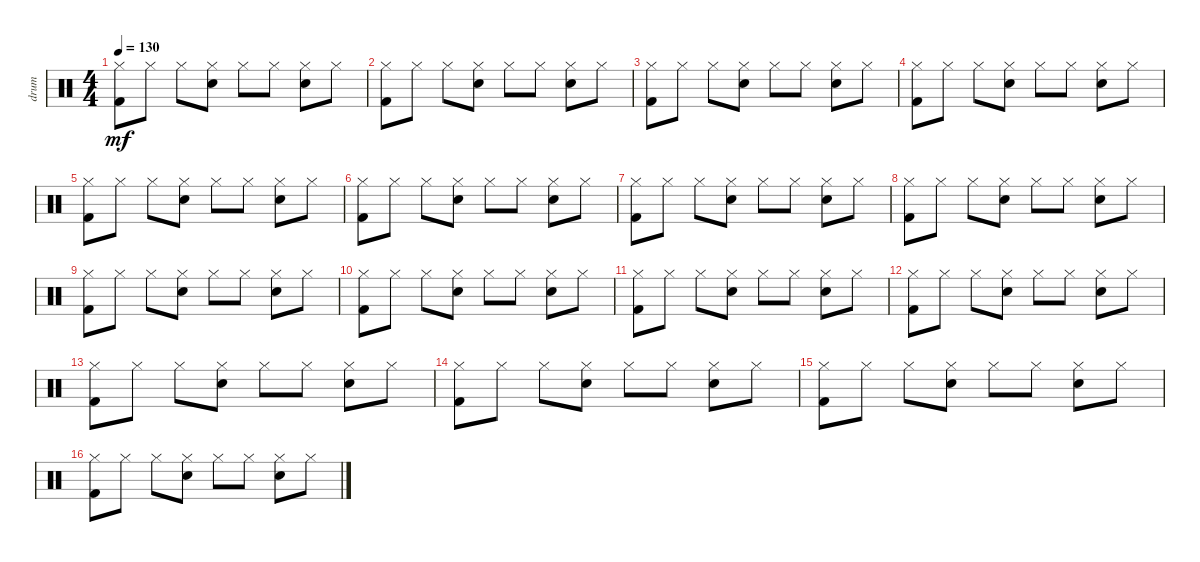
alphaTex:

\track ("drum" "drum") {instrument percussion}
\staff {score}
\articulation defaults
\ts (4 4)
\tempo 130
\clef neutral
\ks c
("Hi-Hat (closed)" "Kick (hit) 2").8{dy mf} "Hi-Hat (closed)".8 "Hi-Hat (closed)".8 ("Hi-Hat (closed)" "Snare (hit) 2").8 "Hi-Hat (closed)".8 "Hi-Hat (closed)".8 ("Hi-Hat (closed)" "Snare (hit) 2").8 "Hi-Hat (closed)".8 |
("Hi-Hat (closed)" "Kick (hit) 2").8 "Hi-Hat (closed)".8 "Hi-Hat (closed)".8 ("Hi-Hat (closed)" "Snare (hit) 2").8 "Hi-Hat (closed)".8 "Hi-Hat (closed)".8 ("Hi-Hat (closed)" "Snare (hit) 2").8 "Hi-Hat (closed)".8 |
("Hi-Hat (closed)" "Kick (hit) 2").8 "Hi-Hat (closed)".8 "Hi-Hat (closed)".8 ("Hi-Hat (closed)" "Snare (hit) 2").8 "Hi-Hat (closed)".8 "Hi-Hat (closed)".8 ("Hi-Hat (closed)" "Snare (hit) 2").8 "Hi-Hat (closed)".8 |
("Hi-Hat (closed)" "Kick (hit) 2").8 "Hi-Hat (closed)".8 "Hi-Hat (closed)".8 ("Hi-Hat (closed)" "Snare (hit) 2").8 "Hi-Hat (closed)".8 "Hi-Hat (closed)".8 ("Hi-Hat (closed)" "Snare (hit) 2").8 "Hi-Hat (closed)".8 |
("Hi-Hat (closed)" "Kick (hit) 2").8 "Hi-Hat (closed)".8 "Hi-Hat (closed)".8 ("Hi-Hat (closed)" "Snare (hit) 2").8 "Hi-Hat (closed)".8 "Hi-Hat (closed)".8 ("Hi-Hat (closed)" "Snare (hit) 2").8 "Hi-Hat (closed)".8 |
("Hi-Hat (closed)" "Kick (hit) 2").8 "Hi-Hat (closed)".8 "Hi-Hat (closed)".8 ("Hi-Hat (closed)" "Snare (hit) 2").8 "Hi-Hat (closed)".8 "Hi-Hat (closed)".8 ("Hi-Hat (closed)" "Snare (hit) 2").8 "Hi-Hat (closed)".8 |
("Hi-Hat (closed)" "Kick (hit) 2").8 "Hi-Hat (closed)".8 "Hi-Hat (closed)".8 ("Hi-Hat (closed)" "Snare (hit) 2").8 "Hi-Hat (closed)".8 "Hi-Hat (closed)".8 ("Hi-Hat (closed)" "Snare (hit) 2").8 "Hi-Hat (closed)".8 |
("Hi-Hat (closed)" "Kick (hit) 2").8 "Hi-Hat (closed)".8 "Hi-Hat (closed)".8 ("Hi-Hat (closed)" "Snare (hit) 2").8 "Hi-Hat (closed)".8 "Hi-Hat (closed)".8 ("Hi-Hat (closed)" "Snare (hit) 2").8 "Hi-Hat (closed)".8 |
("Hi-Hat (closed)" "Kick (hit) 2").8 "Hi-Hat (closed)".8 "Hi-Hat (closed)".8 ("Hi-Hat (closed)" "Snare (hit) 2").8 "Hi-Hat (closed)".8 "Hi-Hat (closed)".8 ("Hi-Hat (closed)" "Snare (hit) 2").8 "Hi-Hat (closed)".8 |
("Hi-Hat (closed)" "Kick (hit) 2").8 "Hi-Hat (closed)".8 "Hi-Hat (closed)".8 ("Hi-Hat (closed)" "Snare (hit) 2").8 "Hi-Hat (closed)".8 "Hi-Hat (closed)".8 ("Hi-Hat (closed)" "Snare (hit) 2").8 "Hi-Hat (closed)".8 |
("Hi-Hat (closed)" "Kick (hit) 2").8 "Hi-Hat (closed)".8 "Hi-Hat (closed)".8 ("Hi-Hat (closed)" "Snare (hit) 2").8 "Hi-Hat (closed)".8 "Hi-Hat (closed)".8 ("Hi-Hat (closed)" "Snare (hit) 2").8 "Hi-Hat (closed)".8 |
("Hi-Hat (closed)" "Kick (hit) 2").8 "Hi-Hat (closed)".8 "Hi-Hat (closed)".8 ("Hi-Hat (closed)" "Snare (hit) 2").8 "Hi-Hat (closed)".8 "Hi-Hat (closed)".8 ("Hi-Hat (closed)" "Snare (hit) 2").8 "Hi-Hat (closed)".8 |
("Hi-Hat (closed)" "Kick (hit) 2").8 "Hi-Hat (closed)".8 "Hi-Hat (closed)".8 ("Hi-Hat (closed)" "Snare (hit) 2").8 "Hi-Hat (closed)".8 "Hi-Hat (closed)".8 ("Hi-Hat (closed)" "Snare (hit) 2").8 "Hi-Hat (closed)".8 |
("Hi-Hat (closed)" "Kick (hit) 2").8 "Hi-Hat (closed)".8 "Hi-Hat (closed)".8 ("Hi-Hat (closed)" "Snare (hit) 2").8 "Hi-Hat (closed)".8 "Hi-Hat (closed)".8 ("Hi-Hat (closed)" "Snare (hit) 2").8 "Hi-Hat (closed)".8 |
("Hi-Hat (closed)" "Kick (hit) 2").8 "Hi-Hat (closed)".8 "Hi-Hat (closed)".8 ("Hi-Hat (closed)" "Snare (hit) 2").8 "Hi-Hat (closed)".8 "Hi-Hat (closed)".8 ("Hi-Hat (closed)" "Snare (hit) 2").8 "Hi-Hat (closed)".8 |
("Hi-Hat (closed)" "Kick (hit) 2").8 "Hi-Hat (closed)".8 "Hi-Hat (closed)".8 ("Hi-Hat (closed)" "Snare (hit) 2").8 "Hi-Hat (closed)".8 "Hi-Hat (closed)".8 ("Hi-Hat (closed)" "Snare (hit) 2").8 "Hi-Hat (closed)".8
